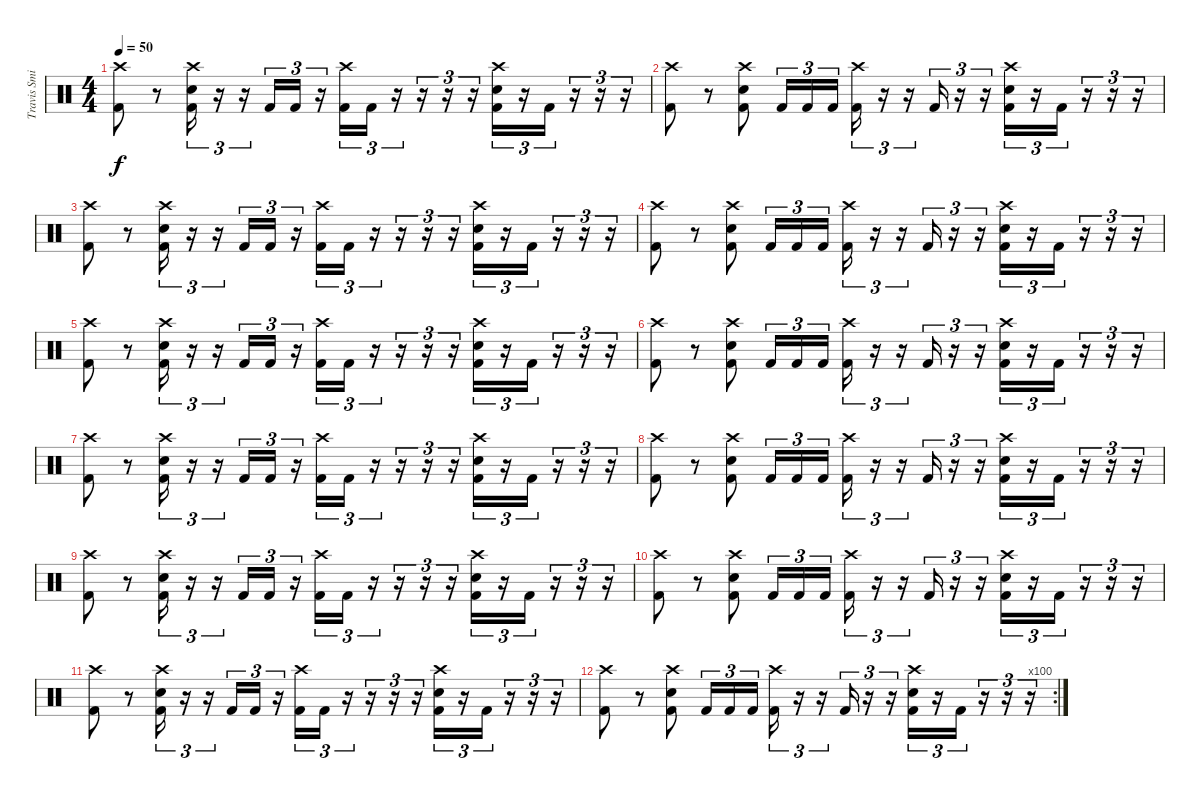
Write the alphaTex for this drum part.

\track ("Travis Smith" "Travis Smi") {instrument percussion}
\staff {score}
\articulation defaults
\ts (4 4)
\section ("" "")
\tempo 50
\clef neutral
\ks c
("Crash high (hit)" "Kick (hit) 2").8{dy f} r.8 ("Crash high (hit)" "Snare (hit) 2" "Kick (hit) 2").16{tu (3 2)} r.16{tu (3 2)} r.16{tu (3 2)} "Kick (hit) 2".16{tu (3 2)} "Kick (hit) 2".16{tu (3 2)} r.16{tu (3 2)} ("Crash high (hit)" "Kick (hit) 2").16{tu (3 2)} "Kick (hit) 2".16{tu (3 2)} r.16{tu (3 2)} r.16{tu (3 2)} r.16{tu (3 2)} r.16{tu (3 2)} ("Crash high (hit)" "Snare (hit) 2" "Kick (hit) 2").16{tu (3 2)} r.16{tu (3 2)} "Kick (hit) 2".16{tu (3 2)} r.16{tu (3 2)} r.16{tu (3 2)} r.16{tu (3 2)} |
("Crash high (hit)" "Kick (hit) 2").8 r.8 ("Crash high (hit)" "Snare (hit) 2" "Kick (hit) 2").8 "Kick (hit) 2".16{tu (3 2)} "Kick (hit) 2".16{tu (3 2)} "Kick (hit) 2".16{tu (3 2)} ("Crash high (hit)" "Kick (hit) 2").16{tu (3 2)} r.16{tu (3 2)} r.16{tu (3 2)} "Kick (hit) 2".16{tu (3 2)} r.16{tu (3 2)} r.16{tu (3 2)} ("Crash high (hit)" "Snare (hit) 2" "Kick (hit) 2").16{tu (3 2)} r.16{tu (3 2)} "Kick (hit) 2".16{tu (3 2)} r.16{tu (3 2)} r.16{tu (3 2)} r.16{tu (3 2)} |
("Crash high (hit)" "Kick (hit) 2").8 r.8 ("Crash high (hit)" "Snare (hit) 2" "Kick (hit) 2").16{tu (3 2)} r.16{tu (3 2)} r.16{tu (3 2)} "Kick (hit) 2".16{tu (3 2)} "Kick (hit) 2".16{tu (3 2)} r.16{tu (3 2)} ("Crash high (hit)" "Kick (hit) 2").16{tu (3 2)} "Kick (hit) 2".16{tu (3 2)} r.16{tu (3 2)} r.16{tu (3 2)} r.16{tu (3 2)} r.16{tu (3 2)} ("Crash high (hit)" "Snare (hit) 2" "Kick (hit) 2").16{tu (3 2)} r.16{tu (3 2)} "Kick (hit) 2".16{tu (3 2)} r.16{tu (3 2)} r.16{tu (3 2)} r.16{tu (3 2)} |
("Crash high (hit)" "Kick (hit) 2").8 r.8 ("Crash high (hit)" "Snare (hit) 2" "Kick (hit) 2").8 "Kick (hit) 2".16{tu (3 2)} "Kick (hit) 2".16{tu (3 2)} "Kick (hit) 2".16{tu (3 2)} ("Crash high (hit)" "Kick (hit) 2").16{tu (3 2)} r.16{tu (3 2)} r.16{tu (3 2)} "Kick (hit) 2".16{tu (3 2)} r.16{tu (3 2)} r.16{tu (3 2)} ("Crash high (hit)" "Snare (hit) 2" "Kick (hit) 2").16{tu (3 2)} r.16{tu (3 2)} "Kick (hit) 2".16{tu (3 2)} r.16{tu (3 2)} r.16{tu (3 2)} r.16{tu (3 2)} |
\section ("" "")
("Crash high (hit)" "Kick (hit) 2").8 r.8 ("Crash high (hit)" "Snare (hit) 2" "Kick (hit) 2").16{tu (3 2)} r.16{tu (3 2)} r.16{tu (3 2)} "Kick (hit) 2".16{tu (3 2)} "Kick (hit) 2".16{tu (3 2)} r.16{tu (3 2)} ("Crash high (hit)" "Kick (hit) 2").16{tu (3 2)} "Kick (hit) 2".16{tu (3 2)} r.16{tu (3 2)} r.16{tu (3 2)} r.16{tu (3 2)} r.16{tu (3 2)} ("Crash high (hit)" "Snare (hit) 2" "Kick (hit) 2").16{tu (3 2)} r.16{tu (3 2)} "Kick (hit) 2".16{tu (3 2)} r.16{tu (3 2)} r.16{tu (3 2)} r.16{tu (3 2)} |
("Crash high (hit)" "Kick (hit) 2").8 r.8 ("Crash high (hit)" "Snare (hit) 2" "Kick (hit) 2").8 "Kick (hit) 2".16{tu (3 2)} "Kick (hit) 2".16{tu (3 2)} "Kick (hit) 2".16{tu (3 2)} ("Crash high (hit)" "Kick (hit) 2").16{tu (3 2)} r.16{tu (3 2)} r.16{tu (3 2)} "Kick (hit) 2".16{tu (3 2)} r.16{tu (3 2)} r.16{tu (3 2)} ("Crash high (hit)" "Snare (hit) 2" "Kick (hit) 2").16{tu (3 2)} r.16{tu (3 2)} "Kick (hit) 2".16{tu (3 2)} r.16{tu (3 2)} r.16{tu (3 2)} r.16{tu (3 2)} |
("Crash high (hit)" "Kick (hit) 2").8 r.8 ("Crash high (hit)" "Snare (hit) 2" "Kick (hit) 2").16{tu (3 2)} r.16{tu (3 2)} r.16{tu (3 2)} "Kick (hit) 2".16{tu (3 2)} "Kick (hit) 2".16{tu (3 2)} r.16{tu (3 2)} ("Crash high (hit)" "Kick (hit) 2").16{tu (3 2)} "Kick (hit) 2".16{tu (3 2)} r.16{tu (3 2)} r.16{tu (3 2)} r.16{tu (3 2)} r.16{tu (3 2)} ("Crash high (hit)" "Snare (hit) 2" "Kick (hit) 2").16{tu (3 2)} r.16{tu (3 2)} "Kick (hit) 2".16{tu (3 2)} r.16{tu (3 2)} r.16{tu (3 2)} r.16{tu (3 2)} |
("Crash high (hit)" "Kick (hit) 2").8 r.8 ("Crash high (hit)" "Snare (hit) 2" "Kick (hit) 2").8 "Kick (hit) 2".16{tu (3 2)} "Kick (hit) 2".16{tu (3 2)} "Kick (hit) 2".16{tu (3 2)} ("Crash high (hit)" "Kick (hit) 2").16{tu (3 2)} r.16{tu (3 2)} r.16{tu (3 2)} "Kick (hit) 2".16{tu (3 2)} r.16{tu (3 2)} r.16{tu (3 2)} ("Crash high (hit)" "Snare (hit) 2" "Kick (hit) 2").16{tu (3 2)} r.16{tu (3 2)} "Kick (hit) 2".16{tu (3 2)} r.16{tu (3 2)} r.16{tu (3 2)} r.16{tu (3 2)} |
\section ("" "")
("Crash high (hit)" "Kick (hit) 2").8 r.8 ("Crash high (hit)" "Snare (hit) 2" "Kick (hit) 2").16{tu (3 2)} r.16{tu (3 2)} r.16{tu (3 2)} "Kick (hit) 2".16{tu (3 2)} "Kick (hit) 2".16{tu (3 2)} r.16{tu (3 2)} ("Crash high (hit)" "Kick (hit) 2").16{tu (3 2)} "Kick (hit) 2".16{tu (3 2)} r.16{tu (3 2)} r.16{tu (3 2)} r.16{tu (3 2)} r.16{tu (3 2)} ("Crash high (hit)" "Snare (hit) 2" "Kick (hit) 2").16{tu (3 2)} r.16{tu (3 2)} "Kick (hit) 2".16{tu (3 2)} r.16{tu (3 2)} r.16{tu (3 2)} r.16{tu (3 2)} |
("Crash high (hit)" "Kick (hit) 2").8 r.8 ("Crash high (hit)" "Snare (hit) 2" "Kick (hit) 2").8 "Kick (hit) 2".16{tu (3 2)} "Kick (hit) 2".16{tu (3 2)} "Kick (hit) 2".16{tu (3 2)} ("Crash high (hit)" "Kick (hit) 2").16{tu (3 2)} r.16{tu (3 2)} r.16{tu (3 2)} "Kick (hit) 2".16{tu (3 2)} r.16{tu (3 2)} r.16{tu (3 2)} ("Crash high (hit)" "Snare (hit) 2" "Kick (hit) 2").16{tu (3 2)} r.16{tu (3 2)} "Kick (hit) 2".16{tu (3 2)} r.16{tu (3 2)} r.16{tu (3 2)} r.16{tu (3 2)} |
("Crash high (hit)" "Kick (hit) 2").8 r.8 ("Crash high (hit)" "Snare (hit) 2" "Kick (hit) 2").16{tu (3 2)} r.16{tu (3 2)} r.16{tu (3 2)} "Kick (hit) 2".16{tu (3 2)} "Kick (hit) 2".16{tu (3 2)} r.16{tu (3 2)} ("Crash high (hit)" "Kick (hit) 2").16{tu (3 2)} "Kick (hit) 2".16{tu (3 2)} r.16{tu (3 2)} r.16{tu (3 2)} r.16{tu (3 2)} r.16{tu (3 2)} ("Crash high (hit)" "Snare (hit) 2" "Kick (hit) 2").16{tu (3 2)} r.16{tu (3 2)} "Kick (hit) 2".16{tu (3 2)} r.16{tu (3 2)} r.16{tu (3 2)} r.16{tu (3 2)} |
\rc 100
("Crash high (hit)" "Kick (hit) 2").8 r.8 ("Crash high (hit)" "Snare (hit) 2" "Kick (hit) 2").8 "Kick (hit) 2".16{tu (3 2)} "Kick (hit) 2".16{tu (3 2)} "Kick (hit) 2".16{tu (3 2)} ("Crash high (hit)" "Kick (hit) 2").16{tu (3 2)} r.16{tu (3 2)} r.16{tu (3 2)} "Kick (hit) 2".16{tu (3 2)} r.16{tu (3 2)} r.16{tu (3 2)} ("Crash high (hit)" "Snare (hit) 2" "Kick (hit) 2").16{tu (3 2)} r.16{tu (3 2)} "Kick (hit) 2".16{tu (3 2)} r.16{tu (3 2)} r.16{tu (3 2)} r.16{tu (3 2)}
